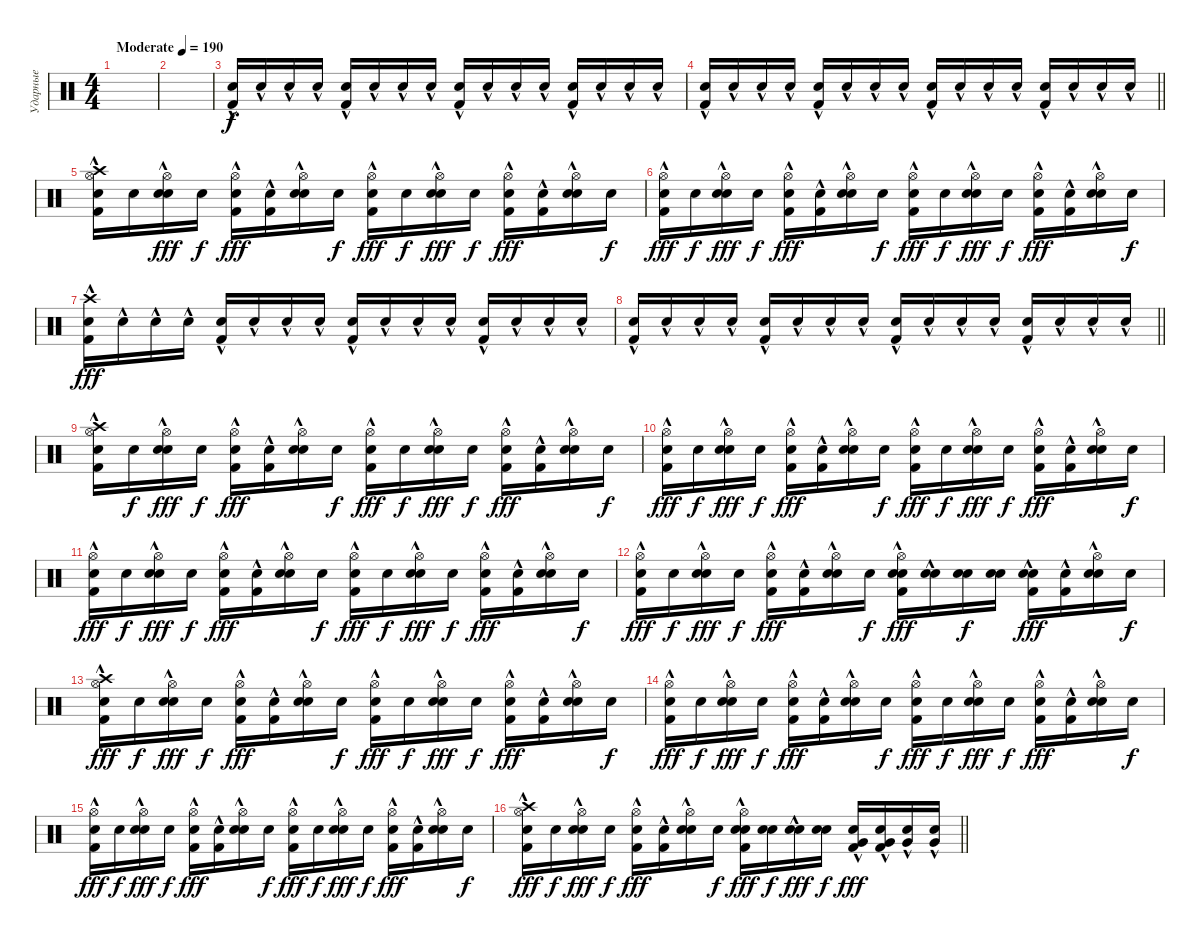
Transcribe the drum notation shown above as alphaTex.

\track ("Ударные" "Ударные") {instrument percussion}
\staff {score}
\articulation defaults
\ts (4 4)
\tempo (190 "Moderate")
\clef neutral
\ks c
|
|
("Electric Snare (hit)"{hac} "Kick (hit) 2"{hac}).16 "Snare (hit) 2"{hac}.16 "Snare (hit) 2"{hac}.16 "Snare (hit) 2"{hac}.16 ("Electric Snare (hit)"{hac} "Kick (hit) 2"{hac}).16 "Snare (hit) 2"{hac}.16 "Snare (hit) 2"{hac}.16 "Snare (hit) 2"{hac}.16 ("Electric Snare (hit)"{hac} "Kick (hit) 2"{hac}).16 "Snare (hit) 2"{hac}.16 "Snare (hit) 2"{hac}.16 "Snare (hit) 2"{hac}.16 ("Electric Snare (hit)"{hac} "Kick (hit) 2"{hac}).16 "Snare (hit) 2"{hac}.16 "Snare (hit) 2"{hac}.16 "Snare (hit) 2"{hac}.16 |
\barLineRight lightlight
("Electric Snare (hit)"{hac} "Kick (hit) 2"{hac}).16 "Snare (hit) 2"{hac}.16 "Snare (hit) 2"{hac}.16 "Snare (hit) 2"{hac}.16 ("Electric Snare (hit)"{hac} "Kick (hit) 2"{hac}).16 "Snare (hit) 2"{hac}.16 "Snare (hit) 2"{hac}.16 "Snare (hit) 2"{hac}.16 ("Snare (hit) 2"{hac} "Kick (hit) 2"{hac}).16 "Snare (hit) 2"{hac}.16 "Snare (hit) 2"{hac}.16 "Snare (hit) 2"{hac}.16 ("Snare (hit) 2"{hac} "Kick (hit) 2"{hac}).16 "Snare (hit) 2"{hac}.16 "Snare (hit) 2"{hac}.16 "Snare (hit) 2"{hac}.16 |
("Snare (hit)" "Crash high (hit)"{hac} "Hi-Hat (open)"{hac} "Kick (hit) 2"{hac}).16 "Snare (hit)".16{dy f} ("Snare (hit)" "Hi-Hat (open)"{hac} "Electric Snare (hit)"{hac}).16{dy fff} "Snare (hit)".16{dy f} ("Snare (hit)" "Hi-Hat (open)"{hac} "Kick (hit) 2"{hac}).16{dy fff} ("Snare (hit)" "Kick (hit) 2"{hac}).16 ("Snare (hit)" "Hi-Hat (open)"{hac} "Electric Snare (hit)"{hac}).16 "Snare (hit)".16{dy f} ("Snare (hit)" "Hi-Hat (open)"{hac} "Kick (hit) 2"{hac}).16{dy fff} "Snare (hit)".16{dy f} ("Snare (hit)" "Hi-Hat (open)"{hac} "Electric Snare (hit)"{hac}).16{dy fff} "Snare (hit)".16{dy f} ("Snare (hit)" "Hi-Hat (open)"{hac} "Kick (hit) 2"{hac}).16{dy fff} ("Snare (hit)" "Kick (hit) 2"{hac}).16 ("Snare (hit)" "Hi-Hat (open)"{hac} "Electric Snare (hit)"{hac}).16 "Snare (hit)".16{dy f} |
("Snare (hit)" "Hi-Hat (open)"{hac} "Kick (hit) 2"{hac}).16{dy fff} "Snare (hit)".16{dy f} ("Snare (hit)" "Hi-Hat (open)"{hac} "Electric Snare (hit)"{hac}).16{dy fff} "Snare (hit)".16{dy f} ("Snare (hit)" "Hi-Hat (open)"{hac} "Kick (hit) 2"{hac}).16{dy fff} ("Snare (hit)" "Kick (hit) 2"{hac}).16 ("Snare (hit)" "Hi-Hat (open)"{hac} "Electric Snare (hit)"{hac}).16 "Snare (hit)".16{dy f} ("Snare (hit)" "Hi-Hat (open)"{hac} "Kick (hit) 2"{hac}).16{dy fff} "Snare (hit)".16{dy f} ("Snare (hit)" "Hi-Hat (open)"{hac} "Electric Snare (hit)"{hac}).16{dy fff} "Snare (hit)".16{dy f} ("Snare (hit)" "Hi-Hat (open)"{hac} "Kick (hit) 2"{hac}).16{dy fff} ("Snare (hit)" "Kick (hit) 2"{hac}).16 ("Snare (hit)" "Hi-Hat (open)"{hac} "Electric Snare (hit)"{hac}).16 "Snare (hit)".16{dy f} |
("Crash high (hit)"{hac} "Electric Snare (hit)"{hac} "Kick (hit) 2"{hac}).16{dy fff} "Snare (hit) 2"{hac}.16 "Snare (hit) 2"{hac}.16 "Snare (hit) 2"{hac}.16 ("Electric Snare (hit)"{hac} "Kick (hit) 2"{hac}).16 "Snare (hit) 2"{hac}.16 "Snare (hit) 2"{hac}.16 "Snare (hit) 2"{hac}.16 ("Electric Snare (hit)"{hac} "Kick (hit) 2"{hac}).16 "Snare (hit) 2"{hac}.16 "Snare (hit) 2"{hac}.16 "Snare (hit) 2"{hac}.16 ("Electric Snare (hit)"{hac} "Kick (hit) 2"{hac}).16 "Snare (hit) 2"{hac}.16 "Snare (hit) 2"{hac}.16 "Snare (hit) 2"{hac}.16 |
\barLineRight lightlight
("Electric Snare (hit)"{hac} "Kick (hit) 2"{hac}).16 "Snare (hit) 2"{hac}.16 "Snare (hit) 2"{hac}.16 "Snare (hit) 2"{hac}.16 ("Electric Snare (hit)"{hac} "Kick (hit) 2"{hac}).16 "Snare (hit) 2"{hac}.16 "Snare (hit) 2"{hac}.16 "Snare (hit) 2"{hac}.16 ("Snare (hit) 2"{hac} "Kick (hit) 2"{hac}).16 "Snare (hit) 2"{hac}.16 "Snare (hit) 2"{hac}.16 "Snare (hit) 2"{hac}.16 ("Snare (hit) 2"{hac} "Kick (hit) 2"{hac}).16 "Snare (hit) 2"{hac}.16 "Snare (hit) 2"{hac}.16 "Snare (hit) 2"{hac}.16 |
("Snare (hit)" "Crash high (hit)"{hac} "Hi-Hat (open)"{hac} "Kick (hit) 2"{hac}).16 "Snare (hit)".16{dy f} ("Snare (hit)" "Hi-Hat (open)"{hac} "Electric Snare (hit)"{hac}).16{dy fff} "Snare (hit)".16{dy f} ("Snare (hit)" "Hi-Hat (open)"{hac} "Kick (hit) 2"{hac}).16{dy fff} ("Snare (hit)" "Kick (hit) 2"{hac}).16 ("Snare (hit)" "Hi-Hat (open)"{hac} "Electric Snare (hit)"{hac}).16 "Snare (hit)".16{dy f} ("Snare (hit)" "Hi-Hat (open)"{hac} "Kick (hit) 2"{hac}).16{dy fff} "Snare (hit)".16{dy f} ("Snare (hit)" "Hi-Hat (open)"{hac} "Electric Snare (hit)"{hac}).16{dy fff} "Snare (hit)".16{dy f} ("Snare (hit)" "Hi-Hat (open)"{hac} "Kick (hit) 2"{hac}).16{dy fff} ("Snare (hit)" "Kick (hit) 2"{hac}).16 ("Snare (hit)" "Hi-Hat (open)"{hac} "Electric Snare (hit)"{hac}).16 "Snare (hit)".16{dy f} |
("Snare (hit)" "Hi-Hat (open)"{hac} "Kick (hit) 2"{hac}).16{dy fff} "Snare (hit)".16{dy f} ("Snare (hit)" "Hi-Hat (open)"{hac} "Electric Snare (hit)"{hac}).16{dy fff} "Snare (hit)".16{dy f} ("Snare (hit)" "Hi-Hat (open)"{hac} "Kick (hit) 2"{hac}).16{dy fff} ("Snare (hit)" "Kick (hit) 2"{hac}).16 ("Snare (hit)" "Hi-Hat (open)"{hac} "Electric Snare (hit)"{hac}).16 "Snare (hit)".16{dy f} ("Snare (hit)" "Hi-Hat (open)"{hac} "Kick (hit) 2"{hac}).16{dy fff} "Snare (hit)".16{dy f} ("Snare (hit)" "Hi-Hat (open)"{hac} "Electric Snare (hit)"{hac}).16{dy fff} "Snare (hit)".16{dy f} ("Snare (hit)" "Hi-Hat (open)"{hac} "Kick (hit) 2"{hac}).16{dy fff} ("Snare (hit)" "Kick (hit) 2"{hac}).16 ("Snare (hit)" "Hi-Hat (open)"{hac} "Electric Snare (hit)"{hac}).16 "Snare (hit)".16{dy f} |
("Snare (hit)" "Hi-Hat (open)"{hac} "Kick (hit) 2"{hac}).16{dy fff} "Snare (hit)".16{dy f} ("Snare (hit)" "Hi-Hat (open)"{hac} "Electric Snare (hit)"{hac}).16{dy fff} "Snare (hit)".16{dy f} ("Snare (hit)" "Hi-Hat (open)"{hac} "Kick (hit) 2"{hac}).16{dy fff} ("Snare (hit)" "Kick (hit) 2"{hac}).16 ("Snare (hit)" "Hi-Hat (open)"{hac} "Electric Snare (hit)"{hac}).16 "Snare (hit)".16{dy f} ("Snare (hit)" "Hi-Hat (open)"{hac} "Kick (hit) 2"{hac}).16{dy fff} "Snare (hit)".16{dy f} ("Snare (hit)" "Hi-Hat (open)"{hac} "Electric Snare (hit)"{hac}).16{dy fff} "Snare (hit)".16{dy f} ("Snare (hit)" "Hi-Hat (open)"{hac} "Kick (hit) 2"{hac}).16{dy fff} ("Snare (hit)" "Kick (hit) 2"{hac}).16 ("Snare (hit)" "Hi-Hat (open)"{hac} "Electric Snare (hit)"{hac}).16 "Snare (hit)".16{dy f} |
("Snare (hit)" "Hi-Hat (open)"{hac} "Kick (hit) 2"{hac}).16{dy fff} "Snare (hit)".16{dy f} ("Snare (hit)" "Hi-Hat (open)"{hac} "Electric Snare (hit)"{hac}).16{dy fff} "Snare (hit)".16{dy f} ("Snare (hit)" "Hi-Hat (open)"{hac} "Kick (hit) 2"{hac}).16{dy fff} ("Snare (hit)" "Kick (hit) 2"{hac}).16 ("Snare (hit)" "Hi-Hat (open)"{hac} "Electric Snare (hit)"{hac}).16 "Snare (hit)".16{dy f} ("Snare (hit)" "Hi-Hat (open)"{hac} "Snare (hit) 2" "Kick (hit) 2"{hac}).16{dy fff} ("Snare (hit)" "Snare (hit) 2"{hac}).16 ("Snare (hit)" "Snare (hit) 2").16{dy f} ("Snare (hit)" "Snare (hit) 2").16 ("Snare (hit)" "Snare (hit) 2"{hac} "Kick (hit) 2"{hac}).16{dy fff} ("Snare (hit)" "Kick (hit) 2"{hac}).16 ("Snare (hit)" "Hi-Hat (open)"{hac} "Snare (hit) 2").16 "Snare (hit)".16{dy f} |
("Snare (hit)" "Crash high (hit)"{hac} "Hi-Hat (open)"{hac} "Kick (hit) 2"{hac}).16{dy fff} "Snare (hit)".16{dy f} ("Snare (hit)" "Hi-Hat (open)"{hac} "Electric Snare (hit)"{hac}).16{dy fff} "Snare (hit)".16{dy f} ("Snare (hit)" "Hi-Hat (open)"{hac} "Kick (hit) 2"{hac}).16{dy fff} ("Snare (hit)" "Kick (hit) 2"{hac}).16 ("Snare (hit)" "Hi-Hat (open)"{hac} "Electric Snare (hit)"{hac}).16 "Snare (hit)".16{dy f} ("Snare (hit)" "Hi-Hat (open)"{hac} "Kick (hit) 2"{hac}).16{dy fff} "Snare (hit)".16{dy f} ("Snare (hit)" "Hi-Hat (open)"{hac} "Electric Snare (hit)"{hac}).16{dy fff} "Snare (hit)".16{dy f} ("Snare (hit)" "Hi-Hat (open)"{hac} "Kick (hit) 2"{hac}).16{dy fff} ("Snare (hit)" "Kick (hit) 2"{hac}).16 ("Snare (hit)" "Hi-Hat (open)"{hac} "Electric Snare (hit)"{hac}).16 "Snare (hit)".16{dy f} |
("Snare (hit)" "Hi-Hat (open)"{hac} "Kick (hit) 2"{hac}).16{dy fff} "Snare (hit)".16{dy f} ("Snare (hit)" "Hi-Hat (open)"{hac} "Electric Snare (hit)"{hac}).16{dy fff} "Snare (hit)".16{dy f} ("Snare (hit)" "Hi-Hat (open)"{hac} "Kick (hit) 2"{hac}).16{dy fff} ("Snare (hit)" "Kick (hit) 2"{hac}).16 ("Snare (hit)" "Hi-Hat (open)"{hac} "Electric Snare (hit)"{hac}).16 "Snare (hit)".16{dy f} ("Snare (hit)" "Hi-Hat (open)"{hac} "Kick (hit) 2"{hac}).16{dy fff} "Snare (hit)".16{dy f} ("Snare (hit)" "Hi-Hat (open)"{hac} "Electric Snare (hit)"{hac}).16{dy fff} "Snare (hit)".16{dy f} ("Snare (hit)" "Hi-Hat (open)"{hac} "Kick (hit) 2"{hac}).16{dy fff} ("Snare (hit)" "Kick (hit) 2"{hac}).16 ("Snare (hit)" "Hi-Hat (open)"{hac} "Electric Snare (hit)"{hac}).16 "Snare (hit)".16{dy f} |
("Snare (hit)" "Hi-Hat (open)"{hac} "Kick (hit) 2"{hac}).16{dy fff} "Snare (hit)".16{dy f} ("Snare (hit)" "Hi-Hat (open)"{hac} "Electric Snare (hit)"{hac}).16{dy fff} "Snare (hit)".16{dy f} ("Snare (hit)" "Hi-Hat (open)"{hac} "Kick (hit) 2"{hac}).16{dy fff} ("Snare (hit)" "Kick (hit) 2"{hac}).16 ("Snare (hit)" "Hi-Hat (open)"{hac} "Electric Snare (hit)"{hac}).16 "Snare (hit)".16{dy f} ("Snare (hit)" "Hi-Hat (open)"{hac} "Kick (hit) 2"{hac}).16{dy fff} "Snare (hit)".16{dy f} ("Snare (hit)" "Hi-Hat (open)"{hac} "Electric Snare (hit)"{hac}).16{dy fff} "Snare (hit)".16{dy f} ("Snare (hit)" "Hi-Hat (open)"{hac} "Kick (hit) 2"{hac}).16{dy fff} ("Snare (hit)" "Kick (hit) 2"{hac}).16 ("Snare (hit)" "Hi-Hat (open)"{hac} "Electric Snare (hit)"{hac}).16 "Snare (hit)".16{dy f} |
\barLineRight lightlight
("Snare (hit)" "Crash high (hit)"{hac} "Hi-Hat (open)"{hac} "Kick (hit) 2"{hac}).16{dy fff} "Snare (hit)".16{dy f} ("Snare (hit)" "Hi-Hat (open)"{hac} "Electric Snare (hit)"{hac}).16{dy fff} "Snare (hit)".16{dy f} ("Snare (hit)" "Hi-Hat (open)"{hac} "Kick (hit) 2"{hac}).16{dy fff} ("Snare (hit)" "Kick (hit) 2"{hac}).16 ("Snare (hit)" "Hi-Hat (open)"{hac} "Electric Snare (hit)"{hac}).16 "Snare (hit)".16{dy f} ("Snare (hit)" "Hi-Hat (open)"{hac} "Electric Snare (hit)" "Kick (hit) 2"{hac}).16{dy fff} ("Snare (hit)" "Electric Snare (hit)").16{dy f} ("Snare (hit)" "Electric Snare (hit)"{hac}).16{dy fff} ("Snare (hit)" "Electric Snare (hit)").16{dy f} ("Snare (hit)" "Very Low Tom (hit)"{hac} "Kick (hit) 2"{hac}).16{dy fff} ("Snare (hit)" "Very Low Tom (hit)"{hac} "Kick (hit) 2"{hac}).16 ("Snare (hit)" "Very Low Tom (hit)"{hac}).16 ("Snare (hit)" "Very Low Tom (hit)"{hac}).16
